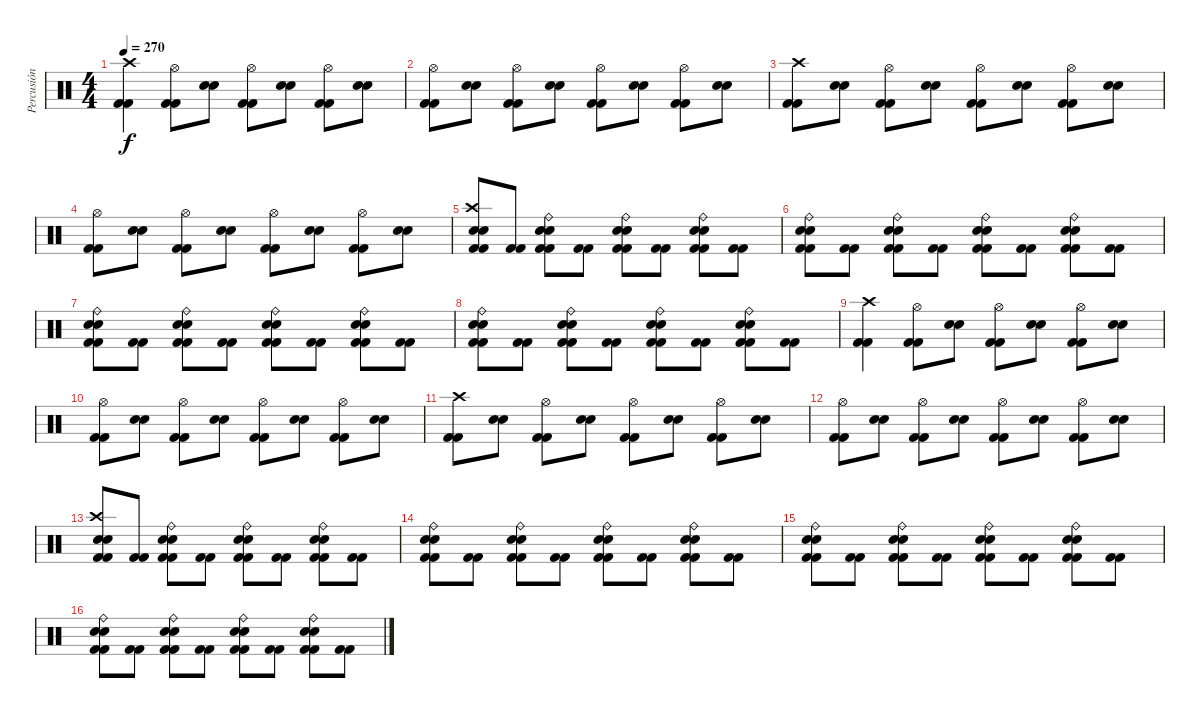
\track ("Percusión" "Percusión") {instrument percussion}
\staff {score}
\articulation defaults
\ts (4 4)
\tempo 270
\clef neutral
\ks c
("Kick (hit) 2" "Kick (hit) 2" "Crash high (hit)").4{dy f} ("Kick (hit) 2" "Kick (hit) 2" "Hi-Hat (open)").8 ("Electric Snare (hit)" "Electric Snare (hit)").8 ("Kick (hit) 2" "Kick (hit) 2" "Hi-Hat (open)").8 ("Electric Snare (hit)" "Electric Snare (hit)").8 ("Kick (hit) 2" "Kick (hit) 2" "Hi-Hat (open)").8 ("Electric Snare (hit)" "Electric Snare (hit)").8 |
("Kick (hit) 2" "Kick (hit) 2" "Hi-Hat (open)").8 ("Electric Snare (hit)" "Electric Snare (hit)").8 ("Kick (hit) 2" "Kick (hit) 2" "Hi-Hat (open)").8 ("Electric Snare (hit)" "Electric Snare (hit)").8 ("Kick (hit) 2" "Kick (hit) 2" "Hi-Hat (open)").8 ("Electric Snare (hit)" "Electric Snare (hit)").8 ("Kick (hit) 2" "Kick (hit) 2" "Hi-Hat (open)").8 ("Electric Snare (hit)" "Electric Snare (hit)").8 |
("Kick (hit) 2" "Kick (hit) 2" "Crash high (hit)").8 ("Electric Snare (hit)" "Electric Snare (hit)").8 ("Kick (hit) 2" "Kick (hit) 2" "Hi-Hat (open)").8 ("Electric Snare (hit)" "Electric Snare (hit)").8 ("Kick (hit) 2" "Kick (hit) 2" "Hi-Hat (open)").8 ("Electric Snare (hit)" "Electric Snare (hit)").8 ("Kick (hit) 2" "Kick (hit) 2" "Hi-Hat (open)").8 ("Electric Snare (hit)" "Electric Snare (hit)").8 |
("Kick (hit) 2" "Kick (hit) 2" "Hi-Hat (open)").8 ("Electric Snare (hit)" "Electric Snare (hit)").8 ("Kick (hit) 2" "Kick (hit) 2" "Hi-Hat (open)").8 ("Electric Snare (hit)" "Electric Snare (hit)").8 ("Kick (hit) 2" "Kick (hit) 2" "Hi-Hat (open)").8 ("Electric Snare (hit)" "Electric Snare (hit)").8 ("Kick (hit) 2" "Kick (hit) 2" "Hi-Hat (open)").8 ("Electric Snare (hit)" "Electric Snare (hit)").8 |
("Kick (hit) 2" "Kick (hit) 2" "Electric Snare (hit)" "Electric Snare (hit)" "Crash high (hit)").8 ("Kick (hit) 2" "Kick (hit) 2").8 ("Kick (hit) 2" "Kick (hit) 2" "Electric Snare (hit)" "Electric Snare (hit)" "Ride (bell)").8 ("Kick (hit) 2" "Kick (hit) 2").8 ("Kick (hit) 2" "Kick (hit) 2" "Electric Snare (hit)" "Electric Snare (hit)" "Ride (bell)").8 ("Kick (hit) 2" "Kick (hit) 2").8 ("Kick (hit) 2" "Kick (hit) 2" "Electric Snare (hit)" "Electric Snare (hit)" "Ride (bell)").8 ("Kick (hit) 2" "Kick (hit) 2").8 |
("Kick (hit) 2" "Kick (hit) 2" "Electric Snare (hit)" "Electric Snare (hit)" "Ride (bell)").8 ("Kick (hit) 2" "Kick (hit) 2").8 ("Kick (hit) 2" "Kick (hit) 2" "Electric Snare (hit)" "Electric Snare (hit)" "Ride (bell)").8 ("Kick (hit) 2" "Kick (hit) 2").8 ("Kick (hit) 2" "Kick (hit) 2" "Electric Snare (hit)" "Electric Snare (hit)" "Ride (bell)").8 ("Kick (hit) 2" "Kick (hit) 2").8 ("Kick (hit) 2" "Kick (hit) 2" "Electric Snare (hit)" "Electric Snare (hit)" "Ride (bell)").8 ("Kick (hit) 2" "Kick (hit) 2").8 |
("Kick (hit) 2" "Kick (hit) 2" "Electric Snare (hit)" "Electric Snare (hit)" "Ride (bell)").8 ("Kick (hit) 2" "Kick (hit) 2").8 ("Kick (hit) 2" "Kick (hit) 2" "Electric Snare (hit)" "Electric Snare (hit)" "Ride (bell)").8 ("Kick (hit) 2" "Kick (hit) 2").8 ("Kick (hit) 2" "Kick (hit) 2" "Electric Snare (hit)" "Electric Snare (hit)" "Ride (bell)").8 ("Kick (hit) 2" "Kick (hit) 2").8 ("Kick (hit) 2" "Kick (hit) 2" "Electric Snare (hit)" "Electric Snare (hit)" "Ride (bell)").8 ("Kick (hit) 2" "Kick (hit) 2").8 |
("Kick (hit) 2" "Kick (hit) 2" "Electric Snare (hit)" "Electric Snare (hit)" "Ride (bell)").8 ("Kick (hit) 2" "Kick (hit) 2").8 ("Kick (hit) 2" "Kick (hit) 2" "Electric Snare (hit)" "Electric Snare (hit)" "Ride (bell)").8 ("Kick (hit) 2" "Kick (hit) 2").8 ("Kick (hit) 2" "Kick (hit) 2" "Electric Snare (hit)" "Electric Snare (hit)" "Ride (bell)").8 ("Kick (hit) 2" "Kick (hit) 2").8 ("Kick (hit) 2" "Kick (hit) 2" "Electric Snare (hit)" "Electric Snare (hit)" "Ride (bell)").8 ("Kick (hit) 2" "Kick (hit) 2").8 |
("Kick (hit) 2" "Kick (hit) 2" "Crash high (hit)").4 ("Kick (hit) 2" "Kick (hit) 2" "Hi-Hat (open)").8 ("Electric Snare (hit)" "Electric Snare (hit)").8 ("Kick (hit) 2" "Kick (hit) 2" "Hi-Hat (open)").8 ("Electric Snare (hit)" "Electric Snare (hit)").8 ("Kick (hit) 2" "Kick (hit) 2" "Hi-Hat (open)").8 ("Electric Snare (hit)" "Electric Snare (hit)").8 |
("Kick (hit) 2" "Kick (hit) 2" "Hi-Hat (open)").8 ("Electric Snare (hit)" "Electric Snare (hit)").8 ("Kick (hit) 2" "Kick (hit) 2" "Hi-Hat (open)").8 ("Electric Snare (hit)" "Electric Snare (hit)").8 ("Kick (hit) 2" "Kick (hit) 2" "Hi-Hat (open)").8 ("Electric Snare (hit)" "Electric Snare (hit)").8 ("Kick (hit) 2" "Kick (hit) 2" "Hi-Hat (open)").8 ("Electric Snare (hit)" "Electric Snare (hit)").8 |
("Kick (hit) 2" "Kick (hit) 2" "Crash high (hit)").8 ("Electric Snare (hit)" "Electric Snare (hit)").8 ("Kick (hit) 2" "Kick (hit) 2" "Hi-Hat (open)").8 ("Electric Snare (hit)" "Electric Snare (hit)").8 ("Kick (hit) 2" "Kick (hit) 2" "Hi-Hat (open)").8 ("Electric Snare (hit)" "Electric Snare (hit)").8 ("Kick (hit) 2" "Kick (hit) 2" "Hi-Hat (open)").8 ("Electric Snare (hit)" "Electric Snare (hit)").8 |
("Kick (hit) 2" "Kick (hit) 2" "Hi-Hat (open)").8 ("Electric Snare (hit)" "Electric Snare (hit)").8 ("Kick (hit) 2" "Kick (hit) 2" "Hi-Hat (open)").8 ("Electric Snare (hit)" "Electric Snare (hit)").8 ("Kick (hit) 2" "Kick (hit) 2" "Hi-Hat (open)").8 ("Electric Snare (hit)" "Electric Snare (hit)").8 ("Kick (hit) 2" "Kick (hit) 2" "Hi-Hat (open)").8 ("Electric Snare (hit)" "Electric Snare (hit)").8 |
("Kick (hit) 2" "Kick (hit) 2" "Electric Snare (hit)" "Electric Snare (hit)" "Crash high (hit)").8 ("Kick (hit) 2" "Kick (hit) 2").8 ("Kick (hit) 2" "Kick (hit) 2" "Electric Snare (hit)" "Electric Snare (hit)" "Ride (bell)").8 ("Kick (hit) 2" "Kick (hit) 2").8 ("Kick (hit) 2" "Kick (hit) 2" "Electric Snare (hit)" "Electric Snare (hit)" "Ride (bell)").8 ("Kick (hit) 2" "Kick (hit) 2").8 ("Kick (hit) 2" "Kick (hit) 2" "Electric Snare (hit)" "Electric Snare (hit)" "Ride (bell)").8 ("Kick (hit) 2" "Kick (hit) 2").8 |
("Kick (hit) 2" "Kick (hit) 2" "Electric Snare (hit)" "Electric Snare (hit)" "Ride (bell)").8 ("Kick (hit) 2" "Kick (hit) 2").8 ("Kick (hit) 2" "Kick (hit) 2" "Electric Snare (hit)" "Electric Snare (hit)" "Ride (bell)").8 ("Kick (hit) 2" "Kick (hit) 2").8 ("Kick (hit) 2" "Kick (hit) 2" "Electric Snare (hit)" "Electric Snare (hit)" "Ride (bell)").8 ("Kick (hit) 2" "Kick (hit) 2").8 ("Kick (hit) 2" "Kick (hit) 2" "Electric Snare (hit)" "Electric Snare (hit)" "Ride (bell)").8 ("Kick (hit) 2" "Kick (hit) 2").8 |
("Kick (hit) 2" "Kick (hit) 2" "Electric Snare (hit)" "Electric Snare (hit)" "Ride (bell)").8 ("Kick (hit) 2" "Kick (hit) 2").8 ("Kick (hit) 2" "Kick (hit) 2" "Electric Snare (hit)" "Electric Snare (hit)" "Ride (bell)").8 ("Kick (hit) 2" "Kick (hit) 2").8 ("Kick (hit) 2" "Kick (hit) 2" "Electric Snare (hit)" "Electric Snare (hit)" "Ride (bell)").8 ("Kick (hit) 2" "Kick (hit) 2").8 ("Kick (hit) 2" "Kick (hit) 2" "Electric Snare (hit)" "Electric Snare (hit)" "Ride (bell)").8 ("Kick (hit) 2" "Kick (hit) 2").8 |
("Kick (hit) 2" "Kick (hit) 2" "Electric Snare (hit)" "Electric Snare (hit)" "Ride (bell)").8 ("Kick (hit) 2" "Kick (hit) 2").8 ("Kick (hit) 2" "Kick (hit) 2" "Electric Snare (hit)" "Electric Snare (hit)" "Ride (bell)").8 ("Kick (hit) 2" "Kick (hit) 2").8 ("Kick (hit) 2" "Kick (hit) 2" "Electric Snare (hit)" "Electric Snare (hit)" "Ride (bell)").8 ("Kick (hit) 2" "Kick (hit) 2").8 ("Kick (hit) 2" "Kick (hit) 2" "Electric Snare (hit)" "Electric Snare (hit)" "Ride (bell)").8 ("Kick (hit) 2" "Kick (hit) 2").8
